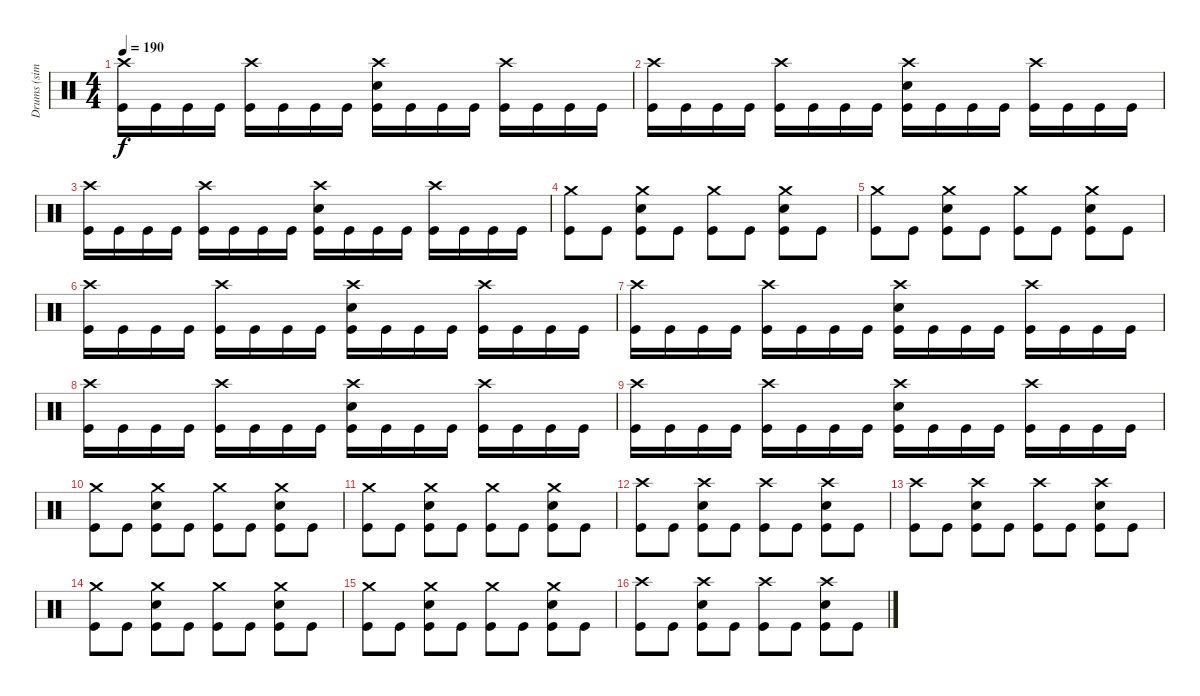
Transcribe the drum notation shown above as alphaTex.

\track ("Drums (simple)" "Drums (sim") {instrument percussion}
\staff {score}
\articulation defaults
\ts (4 4)
\tempo 190
\clef neutral
\ks c
("Crash high (hit)" "Kick (hit)").16{dy f} "Kick (hit)".16 "Kick (hit)".16 "Kick (hit)".16 ("Crash high (hit)" "Kick (hit)").16 "Kick (hit)".16 "Kick (hit)".16 "Kick (hit)".16 ("Crash high (hit)" "Snare (hit) 2" "Kick (hit)").16 "Kick (hit)".16 "Kick (hit)".16 "Kick (hit)".16 ("Crash high (hit)" "Kick (hit)").16 "Kick (hit)".16 "Kick (hit)".16 "Kick (hit)".16 |
("Crash high (hit)" "Kick (hit)").16 "Kick (hit)".16 "Kick (hit)".16 "Kick (hit)".16 ("Crash high (hit)" "Kick (hit)").16 "Kick (hit)".16 "Kick (hit)".16 "Kick (hit)".16 ("Crash high (hit)" "Snare (hit) 2" "Kick (hit)").16 "Kick (hit)".16 "Kick (hit)".16 "Kick (hit)".16 ("Crash high (hit)" "Kick (hit)").16 "Kick (hit)".16 "Kick (hit)".16 "Kick (hit)".16 |
("Crash high (hit)" "Kick (hit)").16 "Kick (hit)".16 "Kick (hit)".16 "Kick (hit)".16 ("Crash high (hit)" "Kick (hit)").16 "Kick (hit)".16 "Kick (hit)".16 "Kick (hit)".16 ("Crash high (hit)" "Snare (hit) 2" "Kick (hit)").16 "Kick (hit)".16 "Kick (hit)".16 "Kick (hit)".16 ("Crash high (hit)" "Kick (hit)").16 "Kick (hit)".16 "Kick (hit)".16 "Kick (hit)".16 |
("Crash medium (hit)" "Kick (hit)").8 "Kick (hit)".8 ("Crash medium (hit)" "Snare (hit) 2" "Kick (hit)").8 "Kick (hit)".8 ("Crash medium (hit)" "Kick (hit)").8 "Kick (hit)".8 ("Crash medium (hit)" "Snare (hit) 2" "Kick (hit)").8 "Kick (hit)".8 |
("Crash medium (hit)" "Kick (hit)").8 "Kick (hit)".8 ("Crash medium (hit)" "Snare (hit) 2" "Kick (hit)").8 "Kick (hit)".8 ("Crash medium (hit)" "Kick (hit)").8 "Kick (hit)".8 ("Crash medium (hit)" "Snare (hit) 2" "Kick (hit)").8 "Kick (hit)".8 |
("Crash high (hit)" "Kick (hit)").16 "Kick (hit)".16 "Kick (hit)".16 "Kick (hit)".16 ("Crash high (hit)" "Kick (hit)").16 "Kick (hit)".16 "Kick (hit)".16 "Kick (hit)".16 ("Crash high (hit)" "Snare (hit) 2" "Kick (hit)").16 "Kick (hit)".16 "Kick (hit)".16 "Kick (hit)".16 ("Crash high (hit)" "Kick (hit)").16 "Kick (hit)".16 "Kick (hit)".16 "Kick (hit)".16 |
("Crash high (hit)" "Kick (hit)").16 "Kick (hit)".16 "Kick (hit)".16 "Kick (hit)".16 ("Crash high (hit)" "Kick (hit)").16 "Kick (hit)".16 "Kick (hit)".16 "Kick (hit)".16 ("Crash high (hit)" "Snare (hit) 2" "Kick (hit)").16 "Kick (hit)".16 "Kick (hit)".16 "Kick (hit)".16 ("Crash high (hit)" "Kick (hit)").16 "Kick (hit)".16 "Kick (hit)".16 "Kick (hit)".16 |
("Crash high (hit)" "Kick (hit)").16 "Kick (hit)".16 "Kick (hit)".16 "Kick (hit)".16 ("Crash high (hit)" "Kick (hit)").16 "Kick (hit)".16 "Kick (hit)".16 "Kick (hit)".16 ("Crash high (hit)" "Snare (hit) 2" "Kick (hit)").16 "Kick (hit)".16 "Kick (hit)".16 "Kick (hit)".16 ("Crash high (hit)" "Kick (hit)").16 "Kick (hit)".16 "Kick (hit)".16 "Kick (hit)".16 |
("Crash high (hit)" "Kick (hit)").16 "Kick (hit)".16 "Kick (hit)".16 "Kick (hit)".16 ("Crash high (hit)" "Kick (hit)").16 "Kick (hit)".16 "Kick (hit)".16 "Kick (hit)".16 ("Crash high (hit)" "Snare (hit) 2" "Kick (hit)").16 "Kick (hit)".16 "Kick (hit)".16 "Kick (hit)".16 ("Crash high (hit)" "Kick (hit)").16 "Kick (hit)".16 "Kick (hit)".16 "Kick (hit)".16 |
("Crash medium (hit)" "Kick (hit)").8 "Kick (hit)".8 ("Crash medium (hit)" "Snare (hit) 2" "Kick (hit)").8 "Kick (hit)".8 ("Crash medium (hit)" "Kick (hit)").8 "Kick (hit)".8 ("Crash medium (hit)" "Snare (hit) 2" "Kick (hit)").8 "Kick (hit)".8 |
("Crash medium (hit)" "Kick (hit)").8 "Kick (hit)".8 ("Crash medium (hit)" "Snare (hit) 2" "Kick (hit)").8 "Kick (hit)".8 ("Crash medium (hit)" "Kick (hit)").8 "Kick (hit)".8 ("Crash medium (hit)" "Snare (hit) 2" "Kick (hit)").8 "Kick (hit)".8 |
("Crash high (hit)" "Kick (hit)").8 "Kick (hit)".8 ("Crash high (hit)" "Snare (hit) 2" "Kick (hit)").8 "Kick (hit)".8 ("Crash high (hit)" "Kick (hit)").8 "Kick (hit)".8 ("Crash high (hit)" "Snare (hit) 2" "Kick (hit)").8 "Kick (hit)".8 |
("Crash high (hit)" "Kick (hit)").8 "Kick (hit)".8 ("Crash high (hit)" "Snare (hit) 2" "Kick (hit)").8 "Kick (hit)".8 ("Crash high (hit)" "Kick (hit)").8 "Kick (hit)".8 ("Crash high (hit)" "Snare (hit) 2" "Kick (hit)").8 "Kick (hit)".8 |
("Crash medium (hit)" "Kick (hit)").8 "Kick (hit)".8 ("Crash medium (hit)" "Snare (hit) 2" "Kick (hit)").8 "Kick (hit)".8 ("Crash medium (hit)" "Kick (hit)").8 "Kick (hit)".8 ("Crash medium (hit)" "Snare (hit) 2" "Kick (hit)").8 "Kick (hit)".8 |
("Crash medium (hit)" "Kick (hit)").8 "Kick (hit)".8 ("Crash medium (hit)" "Snare (hit) 2" "Kick (hit)").8 "Kick (hit)".8 ("Crash medium (hit)" "Kick (hit)").8 "Kick (hit)".8 ("Crash medium (hit)" "Snare (hit) 2" "Kick (hit)").8 "Kick (hit)".8 |
("Crash high (hit)" "Kick (hit)").8 "Kick (hit)".8 ("Crash high (hit)" "Snare (hit) 2" "Kick (hit)").8 "Kick (hit)".8 ("Crash high (hit)" "Kick (hit)").8 "Kick (hit)".8 ("Crash high (hit)" "Snare (hit) 2" "Kick (hit)").8 "Kick (hit)".8
